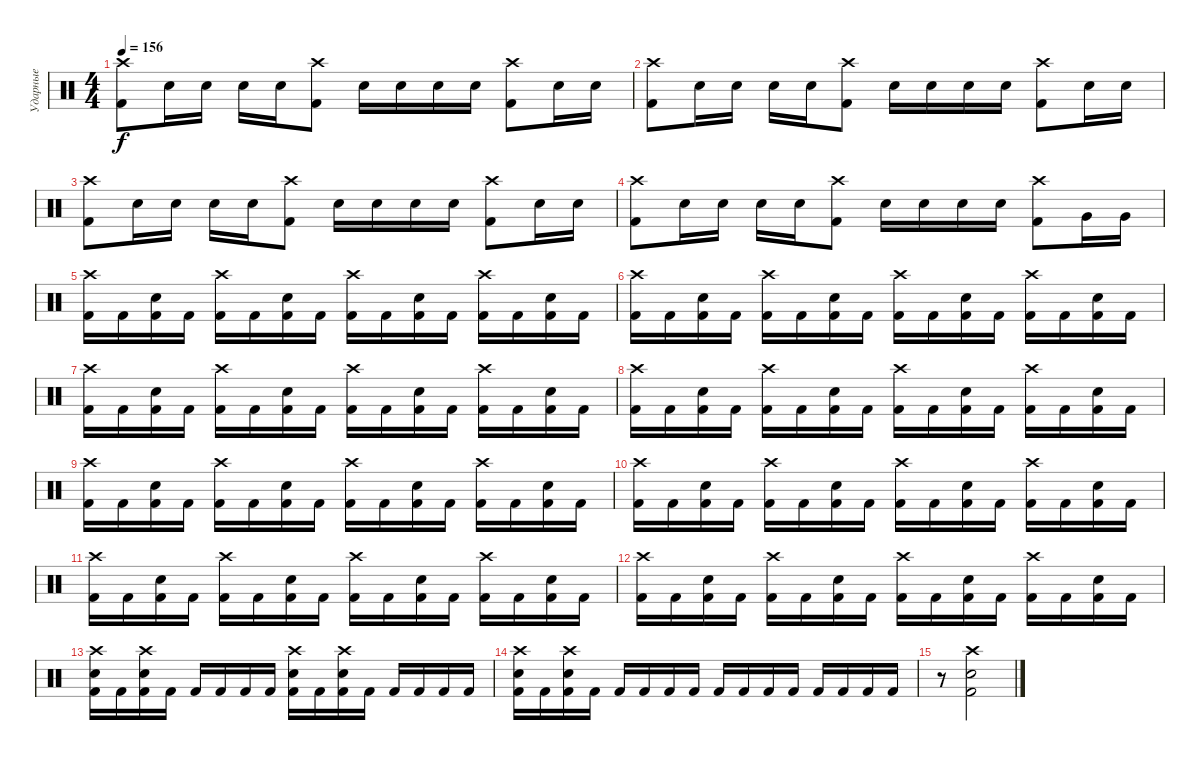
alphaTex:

\track ("Ударные" "Ударные") {instrument percussion}
\staff {score}
\articulation defaults
\ts (4 4)
\tempo 156
\clef neutral
\ks c
("Crash high (hit)" "Kick (hit) 2").8{dy f} "Electric Snare (hit)".16 "Electric Snare (hit)".16 "Electric Snare (hit)".16 "Electric Snare (hit)".16 ("Crash high (hit)" "Kick (hit) 2").8 "Electric Snare (hit)".16 "Electric Snare (hit)".16 "Electric Snare (hit)".16 "Electric Snare (hit)".16 ("Crash high (hit)" "Kick (hit) 2").8 "Electric Snare (hit)".16 "Electric Snare (hit)".16 |
("Crash high (hit)" "Kick (hit) 2").8 "Electric Snare (hit)".16 "Electric Snare (hit)".16 "Electric Snare (hit)".16 "Electric Snare (hit)".16 ("Crash high (hit)" "Kick (hit) 2").8 "Electric Snare (hit)".16 "Electric Snare (hit)".16 "Electric Snare (hit)".16 "Electric Snare (hit)".16 ("Crash high (hit)" "Kick (hit) 2").8 "Electric Snare (hit)".16 "Electric Snare (hit)".16 |
("Crash high (hit)" "Kick (hit) 2").8 "Electric Snare (hit)".16 "Electric Snare (hit)".16 "Electric Snare (hit)".16 "Electric Snare (hit)".16 ("Crash high (hit)" "Kick (hit) 2").8 "Electric Snare (hit)".16 "Electric Snare (hit)".16 "Electric Snare (hit)".16 "Electric Snare (hit)".16 ("Crash high (hit)" "Kick (hit) 2").8 "Electric Snare (hit)".16 "Electric Snare (hit)".16 |
("Crash high (hit)" "Kick (hit) 2").8 "Electric Snare (hit)".16 "Electric Snare (hit)".16 "Electric Snare (hit)".16 "Electric Snare (hit)".16 ("Crash high (hit)" "Kick (hit) 2").8 "Electric Snare (hit)".16 "Electric Snare (hit)".16 "Electric Snare (hit)".16 "Electric Snare (hit)".16 ("Crash high (hit)" "Kick (hit) 2").8 "Very Low Tom (hit)".16 "Very Low Tom (hit)".16 |
("Crash high (hit)" "Kick (hit) 2").16 "Kick (hit) 2".16 ("Electric Snare (hit)" "Kick (hit) 2").16 "Kick (hit) 2".16 ("Crash high (hit)" "Kick (hit) 2").16 "Kick (hit) 2".16 ("Electric Snare (hit)" "Kick (hit) 2").16 "Kick (hit) 2".16 ("Crash high (hit)" "Kick (hit) 2").16 "Kick (hit) 2".16 ("Electric Snare (hit)" "Kick (hit) 2").16 "Kick (hit) 2".16 ("Crash high (hit)" "Kick (hit) 2").16 "Kick (hit) 2".16 ("Electric Snare (hit)" "Kick (hit) 2").16 "Kick (hit) 2".16 |
("Crash high (hit)" "Kick (hit) 2").16 "Kick (hit) 2".16 ("Electric Snare (hit)" "Kick (hit) 2").16 "Kick (hit) 2".16 ("Crash high (hit)" "Kick (hit) 2").16 "Kick (hit) 2".16 ("Electric Snare (hit)" "Kick (hit) 2").16 "Kick (hit) 2".16 ("Crash high (hit)" "Kick (hit) 2").16 "Kick (hit) 2".16 ("Electric Snare (hit)" "Kick (hit) 2").16 "Kick (hit) 2".16 ("Crash high (hit)" "Kick (hit) 2").16 "Kick (hit) 2".16 ("Electric Snare (hit)" "Kick (hit) 2").16 "Kick (hit) 2".16 |
("Crash high (hit)" "Kick (hit) 2").16 "Kick (hit) 2".16 ("Electric Snare (hit)" "Kick (hit) 2").16 "Kick (hit) 2".16 ("Crash high (hit)" "Kick (hit) 2").16 "Kick (hit) 2".16 ("Electric Snare (hit)" "Kick (hit) 2").16 "Kick (hit) 2".16 ("Crash high (hit)" "Kick (hit) 2").16 "Kick (hit) 2".16 ("Electric Snare (hit)" "Kick (hit) 2").16 "Kick (hit) 2".16 ("Crash high (hit)" "Kick (hit) 2").16 "Kick (hit) 2".16 ("Electric Snare (hit)" "Kick (hit) 2").16 "Kick (hit) 2".16 |
("Crash high (hit)" "Kick (hit) 2").16 "Kick (hit) 2".16 ("Electric Snare (hit)" "Kick (hit) 2").16 "Kick (hit) 2".16 ("Crash high (hit)" "Kick (hit) 2").16 "Kick (hit) 2".16 ("Electric Snare (hit)" "Kick (hit) 2").16 "Kick (hit) 2".16 ("Crash high (hit)" "Kick (hit) 2").16 "Kick (hit) 2".16 ("Electric Snare (hit)" "Kick (hit) 2").16 "Kick (hit) 2".16 ("Crash high (hit)" "Kick (hit) 2").16 "Kick (hit) 2".16 ("Electric Snare (hit)" "Kick (hit) 2").16 "Kick (hit) 2".16 |
("Crash high (hit)" "Kick (hit) 2").16 "Kick (hit) 2".16 ("Electric Snare (hit)" "Kick (hit) 2").16 "Kick (hit) 2".16 ("Crash high (hit)" "Kick (hit) 2").16 "Kick (hit) 2".16 ("Electric Snare (hit)" "Kick (hit) 2").16 "Kick (hit) 2".16 ("Crash high (hit)" "Kick (hit) 2").16 "Kick (hit) 2".16 ("Electric Snare (hit)" "Kick (hit) 2").16 "Kick (hit) 2".16 ("Crash high (hit)" "Kick (hit) 2").16 "Kick (hit) 2".16 ("Electric Snare (hit)" "Kick (hit) 2").16 "Kick (hit) 2".16 |
("Crash high (hit)" "Kick (hit) 2").16 "Kick (hit) 2".16 ("Electric Snare (hit)" "Kick (hit) 2").16 "Kick (hit) 2".16 ("Crash high (hit)" "Kick (hit) 2").16 "Kick (hit) 2".16 ("Electric Snare (hit)" "Kick (hit) 2").16 "Kick (hit) 2".16 ("Crash high (hit)" "Kick (hit) 2").16 "Kick (hit) 2".16 ("Electric Snare (hit)" "Kick (hit) 2").16 "Kick (hit) 2".16 ("Crash high (hit)" "Kick (hit) 2").16 "Kick (hit) 2".16 ("Electric Snare (hit)" "Kick (hit) 2").16 "Kick (hit) 2".16 |
("Crash high (hit)" "Kick (hit) 2").16 "Kick (hit) 2".16 ("Electric Snare (hit)" "Kick (hit) 2").16 "Kick (hit) 2".16 ("Crash high (hit)" "Kick (hit) 2").16 "Kick (hit) 2".16 ("Electric Snare (hit)" "Kick (hit) 2").16 "Kick (hit) 2".16 ("Crash high (hit)" "Kick (hit) 2").16 "Kick (hit) 2".16 ("Electric Snare (hit)" "Kick (hit) 2").16 "Kick (hit) 2".16 ("Crash high (hit)" "Kick (hit) 2").16 "Kick (hit) 2".16 ("Electric Snare (hit)" "Kick (hit) 2").16 "Kick (hit) 2".16 |
("Crash high (hit)" "Kick (hit) 2").16 "Kick (hit) 2".16 ("Electric Snare (hit)" "Kick (hit) 2").16 "Kick (hit) 2".16 ("Crash high (hit)" "Kick (hit) 2").16 "Kick (hit) 2".16 ("Electric Snare (hit)" "Kick (hit) 2").16 "Kick (hit) 2".16 ("Crash high (hit)" "Kick (hit) 2").16 "Kick (hit) 2".16 ("Electric Snare (hit)" "Kick (hit) 2").16 "Kick (hit) 2".16 ("Crash high (hit)" "Kick (hit) 2").16 "Kick (hit) 2".16 ("Electric Snare (hit)" "Kick (hit) 2").16 "Kick (hit) 2".16 |
("Crash high (hit)" "Electric Snare (hit)" "Kick (hit) 2").16 "Kick (hit) 2".16 ("Crash high (hit)" "Electric Snare (hit)" "Kick (hit) 2").16 "Kick (hit) 2".16 "Kick (hit) 2".16 "Kick (hit) 2".16 "Kick (hit) 2".16 "Kick (hit) 2".16 ("Crash high (hit)" "Electric Snare (hit)" "Kick (hit) 2").16 "Kick (hit) 2".16 ("Crash high (hit)" "Electric Snare (hit)" "Kick (hit) 2").16 "Kick (hit) 2".16 "Kick (hit) 2".16 "Kick (hit) 2".16 "Kick (hit) 2".16 "Kick (hit) 2".16 |
("Crash high (hit)" "Electric Snare (hit)" "Kick (hit) 2").16 "Kick (hit) 2".16 ("Crash high (hit)" "Electric Snare (hit)" "Kick (hit) 2").16 "Kick (hit) 2".16 "Kick (hit) 2".16 "Kick (hit) 2".16 "Kick (hit) 2".16 "Kick (hit) 2".16 "Kick (hit) 2".16 "Kick (hit) 2".16 "Kick (hit) 2".16 "Kick (hit) 2".16 "Kick (hit) 2".16 "Kick (hit) 2".16 "Kick (hit) 2".16 "Kick (hit) 2".16 |
r.8 ("Crash high (hit)" "Electric Snare (hit)" "Kick (hit) 2").2
